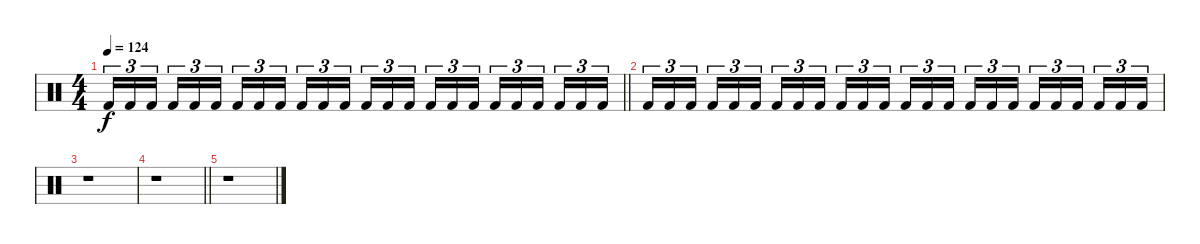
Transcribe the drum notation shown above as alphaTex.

\track "" {instrument percussion}
\staff {score}
\articulation defaults
\ts (4 4)
\tempo 124
\clef neutral
\barLineRight lightlight
\ks c "Kick (hit) 2".16{tu (3 2) dy f} "Kick (hit) 2".16{tu (3 2)} "Kick (hit) 2".16{tu (3 2) beam splitsecondary} "Kick (hit) 2".16{tu (3 2)} "Kick (hit) 2".16{tu (3 2)} "Kick (hit) 2".16{tu (3 2)} "Kick (hit) 2".16{tu (3 2)} "Kick (hit) 2".16{tu (3 2)} "Kick (hit) 2".16{tu (3 2) beam splitsecondary} "Kick (hit) 2".16{tu (3 2)} "Kick (hit) 2".16{tu (3 2)} "Kick (hit) 2".16{tu (3 2)} "Kick (hit) 2".16{tu (3 2)} "Kick (hit) 2".16{tu (3 2)} "Kick (hit) 2".16{tu (3 2) beam splitsecondary} "Kick (hit) 2".16{tu (3 2)} "Kick (hit) 2".16{tu (3 2)} "Kick (hit) 2".16{tu (3 2)} "Kick (hit) 2".16{tu (3 2)} "Kick (hit) 2".16{tu (3 2)} "Kick (hit) 2".16{tu (3 2) beam splitsecondary} "Kick (hit) 2".16{tu (3 2)} "Kick (hit) 2".16{tu (3 2)} "Kick (hit) 2".16{tu (3 2)}
|
"Kick (hit) 2".16{tu (3 2)} "Kick (hit) 2".16{tu (3 2)} "Kick (hit) 2".16{tu (3 2) beam splitsecondary} "Kick (hit) 2".16{tu (3 2)} "Kick (hit) 2".16{tu (3 2)} "Kick (hit) 2".16{tu (3 2)} "Kick (hit) 2".16{tu (3 2)} "Kick (hit) 2".16{tu (3 2)} "Kick (hit) 2".16{tu (3 2) beam splitsecondary} "Kick (hit) 2".16{tu (3 2)} "Kick (hit) 2".16{tu (3 2)} "Kick (hit) 2".16{tu (3 2)} "Kick (hit) 2".16{tu (3 2)} "Kick (hit) 2".16{tu (3 2)} "Kick (hit) 2".16{tu (3 2) beam splitsecondary} "Kick (hit) 2".16{tu (3 2)} "Kick (hit) 2".16{tu (3 2)} "Kick (hit) 2".16{tu (3 2)} "Kick (hit) 2".16{tu (3 2)} "Kick (hit) 2".16{tu (3 2)} "Kick (hit) 2".16{tu (3 2) beam splitsecondary} "Kick (hit) 2".16{tu (3 2)} "Kick (hit) 2".16{tu (3 2)} "Kick (hit) 2".16{tu (3 2)} |
r.1 |
\barLineRight lightlight
r.1 |
r.1
